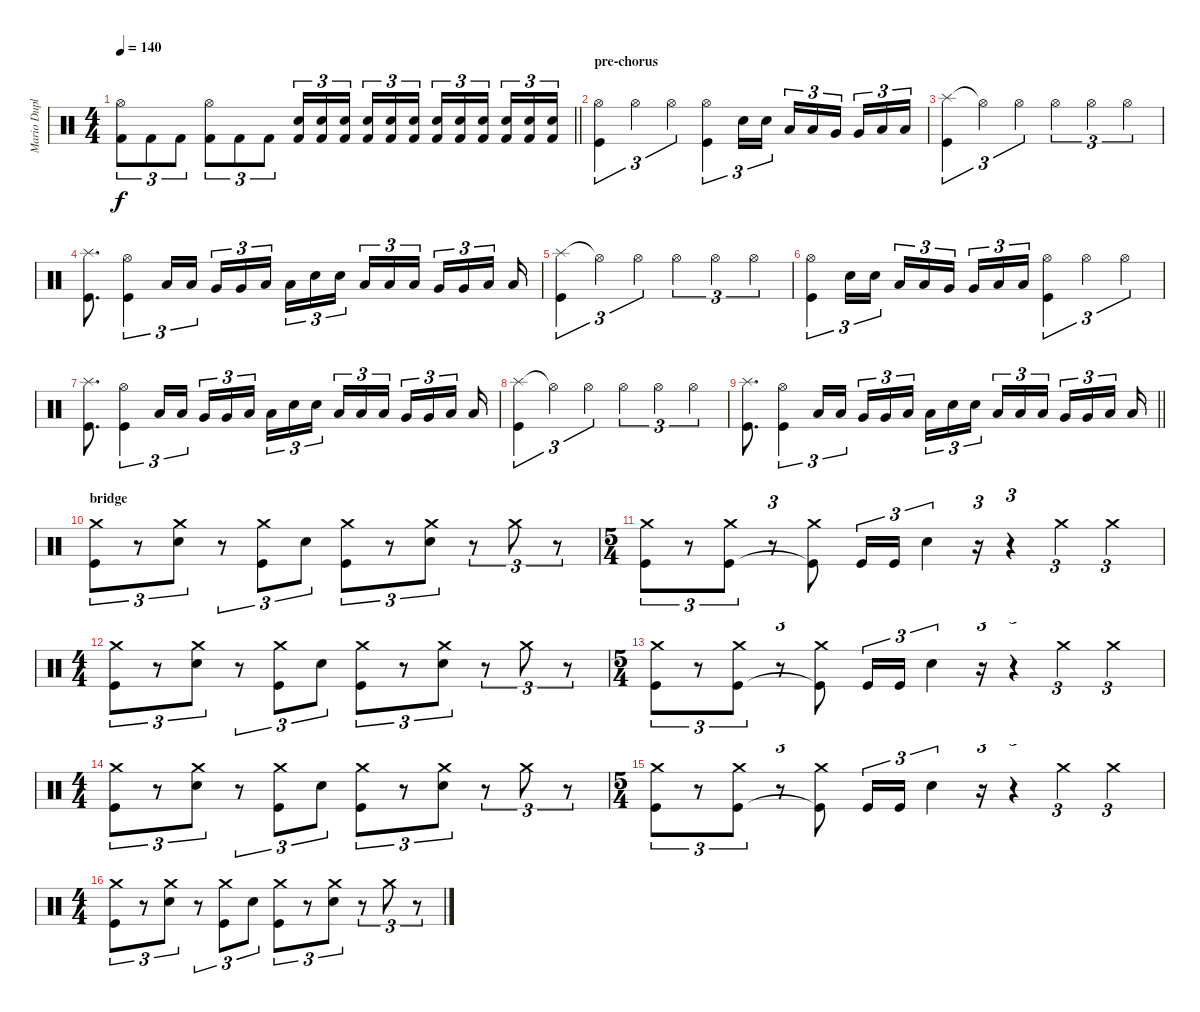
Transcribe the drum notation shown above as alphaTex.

\track ("Mario Duplantier" "Mario Dupl") {instrument percussion}
\staff {score}
\articulation defaults
\ts (4 4)
\tempo 140
\clef neutral
\barLineRight lightlight
\ks c
("Hi-Hat (open)" "Kick (hit) 2").8{tu (3 2) dy f} "Kick (hit) 2".8{tu (3 2)} "Kick (hit) 2".8{tu (3 2)} ("Hi-Hat (open)" "Kick (hit) 2").8{tu (3 2)} "Kick (hit) 2".8{tu (3 2)} "Kick (hit) 2".8{tu (3 2)} ("Electric Snare (hit)" "Kick (hit) 2").16{tu (3 2)} ("Electric Snare (hit)" "Kick (hit) 2").16{tu (3 2)} ("Electric Snare (hit)" "Kick (hit) 2").16{tu (3 2) beam splitsecondary} ("Electric Snare (hit)" "Kick (hit) 2").16{tu (3 2)} ("Electric Snare (hit)" "Kick (hit) 2").16{tu (3 2)} ("Electric Snare (hit)" "Kick (hit) 2").16{tu (3 2)} ("Electric Snare (hit)" "Kick (hit) 2").16{tu (3 2)} ("Electric Snare (hit)" "Kick (hit) 2").16{tu (3 2)} ("Electric Snare (hit)" "Kick (hit) 2").16{tu (3 2) beam splitsecondary} ("Electric Snare (hit)" "Kick (hit) 2").16{tu (3 2)} ("Electric Snare (hit)" "Kick (hit) 2").16{tu (3 2)} ("Electric Snare (hit)" "Kick (hit) 2").16{tu (3 2)} |
\section ("" "pre-chorus")
("Hi-Hat (open)" "Kick (hit)").4{tu (3 2)} "Hi-Hat (open)".4{tu (3 2)} "Hi-Hat (open)".4{tu (3 2)} ("Hi-Hat (open)" "Kick (hit)").4{tu (3 2)} "Electric Snare (hit)".16{tu (3 2)} "Electric Snare (hit)".16{tu (3 2)} "Low Tom (hit)".16{tu (3 2)} "Low Tom (hit)".16{tu (3 2)} "Very Low Tom (hit)".16{tu (3 2) beam splitsecondary} "Very Low Tom (hit)".16{tu (3 2)} "Low Floor Tom (hit)".16{tu (3 2)} "Low Floor Tom (hit)".16{tu (3 2)} |
("Splash (hit)" "Kick (hit)").4{tu (3 2)} "Hi-Hat (open)"{t}.4{tu (3 2)} "Hi-Hat (open)".4{tu (3 2)} "Hi-Hat (open)".4{tu (3 2)} "Hi-Hat (open)".4{tu (3 2)} "Hi-Hat (open)".4{tu (3 2)} |
("Splash (hit)" "Kick (hit)").8{d} ("Hi-Hat (open)" "Kick (hit)").4{tu (3 2)} "Low Tom (hit)".16{tu (3 2)} "Low Tom (hit)".16{tu (3 2) beam splitsecondary} "Very Low Tom (hit)".16{tu (3 2)} "Very Low Tom (hit)".16{tu (3 2)} "Low Floor Tom (hit)".16{tu (3 2) beam splitsecondary} "Low Floor Tom (hit)".16{tu (3 2)} "Electric Snare (hit)".16{tu (3 2)} "Electric Snare (hit)".16{tu (3 2) beam splitsecondary} "Low Tom (hit)".16{tu (3 2)} "Low Tom (hit)".16{tu (3 2)} "Low Tom (hit)".16{tu (3 2) beam splitsecondary} "Very Low Tom (hit)".16{tu (3 2)} "Very Low Tom (hit)".16{tu (3 2)} "Low Floor Tom (hit)".16{tu (3 2) beam splitsecondary} "Low Floor Tom (hit)".16 |
("Splash (hit)" "Kick (hit)").4{tu (3 2)} "Hi-Hat (open)"{t}.4{tu (3 2)} "Hi-Hat (open)".4{tu (3 2)} "Hi-Hat (open)".4{tu (3 2)} "Hi-Hat (open)".4{tu (3 2)} "Hi-Hat (open)".4{tu (3 2)} |
("Hi-Hat (open)" "Kick (hit)").4{tu (3 2)} "Electric Snare (hit)".16{tu (3 2)} "Electric Snare (hit)".16{tu (3 2)} "Low Tom (hit)".16{tu (3 2)} "Low Tom (hit)".16{tu (3 2)} "Very Low Tom (hit)".16{tu (3 2) beam splitsecondary} "Very Low Tom (hit)".16{tu (3 2)} "Low Floor Tom (hit)".16{tu (3 2)} "Low Floor Tom (hit)".16{tu (3 2)} ("Hi-Hat (open)" "Kick (hit)").4{tu (3 2)} "Hi-Hat (open)".4{tu (3 2)} "Hi-Hat (open)".4{tu (3 2)} |
("Splash (hit)" "Kick (hit)").8{d} ("Hi-Hat (open)" "Kick (hit)").4{tu (3 2)} "Low Tom (hit)".16{tu (3 2)} "Low Tom (hit)".16{tu (3 2) beam splitsecondary} "Very Low Tom (hit)".16{tu (3 2)} "Very Low Tom (hit)".16{tu (3 2)} "Low Floor Tom (hit)".16{tu (3 2) beam splitsecondary} "Low Floor Tom (hit)".16{tu (3 2)} "Electric Snare (hit)".16{tu (3 2)} "Electric Snare (hit)".16{tu (3 2) beam splitsecondary} "Low Tom (hit)".16{tu (3 2)} "Low Tom (hit)".16{tu (3 2)} "Low Tom (hit)".16{tu (3 2) beam splitsecondary} "Very Low Tom (hit)".16{tu (3 2)} "Very Low Tom (hit)".16{tu (3 2)} "Low Floor Tom (hit)".16{tu (3 2) beam splitsecondary} "Low Floor Tom (hit)".16 |
("Splash (hit)" "Kick (hit)").4{tu (3 2)} "Hi-Hat (open)"{t}.4{tu (3 2)} "Hi-Hat (open)".4{tu (3 2)} "Hi-Hat (open)".4{tu (3 2)} "Hi-Hat (open)".4{tu (3 2)} "Hi-Hat (open)".4{tu (3 2)} |
\barLineRight lightlight
("Splash (hit)" "Kick (hit)").8{d} ("Hi-Hat (open)" "Kick (hit)").4{tu (3 2)} "Low Tom (hit)".16{tu (3 2)} "Low Tom (hit)".16{tu (3 2) beam splitsecondary} "Very Low Tom (hit)".16{tu (3 2)} "Very Low Tom (hit)".16{tu (3 2)} "Low Floor Tom (hit)".16{tu (3 2) beam splitsecondary} "Low Floor Tom (hit)".16{tu (3 2)} "Electric Snare (hit)".16{tu (3 2)} "Electric Snare (hit)".16{tu (3 2) beam splitsecondary} "Low Tom (hit)".16{tu (3 2)} "Low Tom (hit)".16{tu (3 2)} "Low Tom (hit)".16{tu (3 2) beam splitsecondary} "Very Low Tom (hit)".16{tu (3 2)} "Very Low Tom (hit)".16{tu (3 2)} "Low Floor Tom (hit)".16{tu (3 2) beam splitsecondary} "Low Floor Tom (hit)".16 |
\section ("" "bridge")
("Crash medium (hit)" "Kick (hit)").8{tu (3 2)} r.8{tu (3 2)} ("Crash medium (hit)" "Electric Snare (hit)").8{tu (3 2)} r.8{tu (3 2)} ("Crash medium (hit)" "Kick (hit)").8{tu (3 2)} "Electric Snare (hit)".8{tu (3 2)} ("Crash medium (hit)" "Kick (hit)").8{tu (3 2)} r.8{tu (3 2)} ("Crash medium (hit)" "Electric Snare (hit)").8{tu (3 2)} r.8{tu (3 2)} "Crash medium (hit)".8{tu (3 2)} r.8{tu (3 2)} |
\ts (5 4)
("Crash medium (hit)" "Kick (hit)").8{tu (3 2)} r.8{tu (3 2)} ("Crash medium (hit)" "Kick (hit)").8{tu (3 2)} r.8{tu (3 2)} ("Crash medium (hit)" "Kick (hit)"{t}).8 "Kick (hit)".16{tu (3 2)} "Kick (hit)".16{tu (3 2)} "Electric Snare (hit)".4{tu (3 2)} r.16{tu (3 2)} r.4{tu (3 2)} "Crash medium (hit)".4{tu (3 2)} "Crash medium (hit)".4{tu (3 2)} |
\ts (4 4)
("Crash medium (hit)" "Kick (hit)").8{tu (3 2)} r.8{tu (3 2)} ("Crash medium (hit)" "Electric Snare (hit)").8{tu (3 2)} r.8{tu (3 2)} ("Crash medium (hit)" "Kick (hit)").8{tu (3 2)} "Electric Snare (hit)".8{tu (3 2)} ("Crash medium (hit)" "Kick (hit)").8{tu (3 2)} r.8{tu (3 2)} ("Crash medium (hit)" "Electric Snare (hit)").8{tu (3 2)} r.8{tu (3 2)} "Crash medium (hit)".8{tu (3 2)} r.8{tu (3 2)} |
\ts (5 4)
("Crash medium (hit)" "Kick (hit)").8{tu (3 2)} r.8{tu (3 2)} ("Crash medium (hit)" "Kick (hit)").8{tu (3 2)} r.8{tu (3 2)} ("Crash medium (hit)" "Kick (hit)"{t}).8 "Kick (hit)".16{tu (3 2)} "Kick (hit)".16{tu (3 2)} "Electric Snare (hit)".4{tu (3 2)} r.16{tu (3 2)} r.4{tu (3 2)} "Crash medium (hit)".4{tu (3 2)} "Crash medium (hit)".4{tu (3 2)} |
\ts (4 4)
("Crash medium (hit)" "Kick (hit)").8{tu (3 2)} r.8{tu (3 2)} ("Crash medium (hit)" "Electric Snare (hit)").8{tu (3 2)} r.8{tu (3 2)} ("Crash medium (hit)" "Kick (hit)").8{tu (3 2)} "Electric Snare (hit)".8{tu (3 2)} ("Crash medium (hit)" "Kick (hit)").8{tu (3 2)} r.8{tu (3 2)} ("Crash medium (hit)" "Electric Snare (hit)").8{tu (3 2)} r.8{tu (3 2)} "Crash medium (hit)".8{tu (3 2)} r.8{tu (3 2)} |
\ts (5 4)
("Crash medium (hit)" "Kick (hit)").8{tu (3 2)} r.8{tu (3 2)} ("Crash medium (hit)" "Kick (hit)").8{tu (3 2)} r.8{tu (3 2)} ("Crash medium (hit)" "Kick (hit)"{t}).8 "Kick (hit)".16{tu (3 2)} "Kick (hit)".16{tu (3 2)} "Electric Snare (hit)".4{tu (3 2)} r.16{tu (3 2)} r.4{tu (3 2)} "Crash medium (hit)".4{tu (3 2)} "Crash medium (hit)".4{tu (3 2)} |
\ts (4 4)
("Crash medium (hit)" "Kick (hit)").8{tu (3 2)} r.8{tu (3 2)} ("Crash medium (hit)" "Electric Snare (hit)").8{tu (3 2)} r.8{tu (3 2)} ("Crash medium (hit)" "Kick (hit)").8{tu (3 2)} "Electric Snare (hit)".8{tu (3 2)} ("Crash medium (hit)" "Kick (hit)").8{tu (3 2)} r.8{tu (3 2)} ("Crash medium (hit)" "Electric Snare (hit)").8{tu (3 2)} r.8{tu (3 2)} "Crash medium (hit)".8{tu (3 2)} r.8{tu (3 2)}
